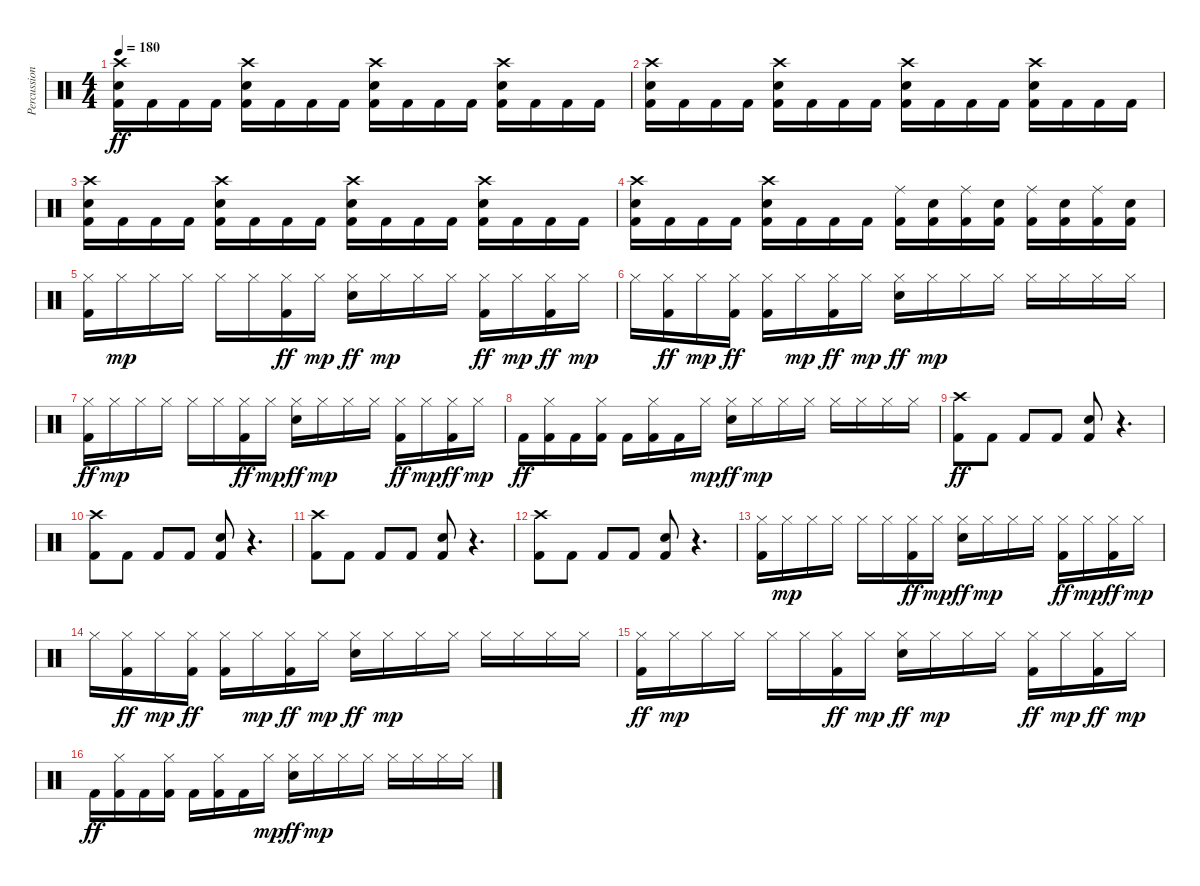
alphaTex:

\track ("Percussion" "Percussion") {instrument percussion}
\staff {score}
\articulation defaults
\ts (4 4)
\tempo 180
\clef neutral
\ks c
("Crash high (hit)" "Electric Snare (hit)" "Kick (hit) 2").16{dy ff} "Kick (hit) 2".16 "Kick (hit) 2".16 "Kick (hit) 2".16 ("Crash high (hit)" "Electric Snare (hit)" "Kick (hit) 2").16 "Kick (hit) 2".16 "Kick (hit) 2".16 "Kick (hit) 2".16 ("Crash high (hit)" "Electric Snare (hit)" "Kick (hit) 2").16 "Kick (hit) 2".16 "Kick (hit) 2".16 "Kick (hit) 2".16 ("Crash high (hit)" "Electric Snare (hit)" "Kick (hit) 2").16 "Kick (hit) 2".16 "Kick (hit) 2".16 "Kick (hit) 2".16 |
("Crash high (hit)" "Electric Snare (hit)" "Kick (hit) 2").16 "Kick (hit) 2".16 "Kick (hit) 2".16 "Kick (hit) 2".16 ("Crash high (hit)" "Electric Snare (hit)" "Kick (hit) 2").16 "Kick (hit) 2".16 "Kick (hit) 2".16 "Kick (hit) 2".16 ("Crash high (hit)" "Electric Snare (hit)" "Kick (hit) 2").16 "Kick (hit) 2".16 "Kick (hit) 2".16 "Kick (hit) 2".16 ("Crash high (hit)" "Electric Snare (hit)" "Kick (hit) 2").16 "Kick (hit) 2".16 "Kick (hit) 2".16 "Kick (hit) 2".16 |
("Crash high (hit)" "Electric Snare (hit)" "Kick (hit) 2").16 "Kick (hit) 2".16 "Kick (hit) 2".16 "Kick (hit) 2".16 ("Crash high (hit)" "Electric Snare (hit)" "Kick (hit) 2").16 "Kick (hit) 2".16 "Kick (hit) 2".16 "Kick (hit) 2".16 ("Crash high (hit)" "Electric Snare (hit)" "Kick (hit) 2").16 "Kick (hit) 2".16 "Kick (hit) 2".16 "Kick (hit) 2".16 ("Crash high (hit)" "Electric Snare (hit)" "Kick (hit) 2").16 "Kick (hit) 2".16 "Kick (hit) 2".16 "Kick (hit) 2".16 |
("Crash high (hit)" "Electric Snare (hit)" "Kick (hit) 2").16 "Kick (hit) 2".16 "Kick (hit) 2".16 "Kick (hit) 2".16 ("Crash high (hit)" "Electric Snare (hit)" "Kick (hit) 2").16 "Kick (hit) 2".16 "Kick (hit) 2".16 "Kick (hit) 2".16 ("Ride (middle)" "Kick (hit) 2").16 ("Electric Snare (hit)" "Kick (hit) 2").16 ("Ride (middle)" "Kick (hit) 2").16 ("Electric Snare (hit)" "Kick (hit) 2").16 ("Ride (middle)" "Kick (hit) 2").16 ("Electric Snare (hit)" "Kick (hit) 2").16 ("Ride (middle)" "Kick (hit) 2").16 ("Electric Snare (hit)" "Kick (hit) 2").16 |
("Hi-Hat (closed)" "Kick (hit) 2").16 "Hi-Hat (closed)".16{dy mp} "Hi-Hat (closed)".16 "Hi-Hat (closed)".16 "Hi-Hat (closed)".16 "Hi-Hat (closed)".16 ("Hi-Hat (closed)" "Kick (hit) 2").16{dy ff} "Hi-Hat (closed)".16{dy mp} ("Hi-Hat (closed)" "Electric Snare (hit)").16{dy ff} "Hi-Hat (closed)".16{dy mp} "Hi-Hat (closed)".16 "Hi-Hat (closed)".16 ("Hi-Hat (closed)" "Kick (hit) 2").16{dy ff} "Hi-Hat (closed)".16{dy mp} ("Hi-Hat (closed)" "Kick (hit) 2").16{dy ff} "Hi-Hat (closed)".16{dy mp} |
"Hi-Hat (closed)".16 ("Hi-Hat (closed)" "Kick (hit) 2").16{dy ff} "Hi-Hat (closed)".16{dy mp} ("Hi-Hat (closed)" "Kick (hit) 2").16{dy ff} ("Hi-Hat (closed)" "Kick (hit) 2").16 "Hi-Hat (closed)".16{dy mp} ("Hi-Hat (closed)" "Kick (hit) 2").16{dy ff} "Hi-Hat (closed)".16{dy mp} ("Hi-Hat (closed)" "Electric Snare (hit)").16{dy ff} "Hi-Hat (closed)".16{dy mp} "Hi-Hat (closed)".16 "Hi-Hat (closed)".16 "Hi-Hat (closed)".16 "Hi-Hat (closed)".16 "Hi-Hat (closed)".16 "Hi-Hat (closed)".16 |
("Hi-Hat (closed)" "Kick (hit) 2").16{dy ff} "Hi-Hat (closed)".16{dy mp} "Hi-Hat (closed)".16 "Hi-Hat (closed)".16 "Hi-Hat (closed)".16 "Hi-Hat (closed)".16 ("Hi-Hat (closed)" "Kick (hit) 2").16{dy ff} "Hi-Hat (closed)".16{dy mp} ("Hi-Hat (closed)" "Electric Snare (hit)").16{dy ff} "Hi-Hat (closed)".16{dy mp} "Hi-Hat (closed)".16 "Hi-Hat (closed)".16 ("Hi-Hat (closed)" "Kick (hit) 2").16{dy ff} "Hi-Hat (closed)".16{dy mp} ("Hi-Hat (closed)" "Kick (hit) 2").16{dy ff} "Hi-Hat (closed)".16{dy mp} |
"Kick (hit) 2".16{dy ff} ("Hi-Hat (closed)" "Kick (hit) 2").16 "Kick (hit) 2".16 ("Hi-Hat (closed)" "Kick (hit) 2").16 "Kick (hit) 2".16 ("Hi-Hat (closed)" "Kick (hit) 2").16 "Kick (hit) 2".16 "Hi-Hat (closed)".16{dy mp} ("Hi-Hat (closed)" "Electric Snare (hit)").16{dy ff} "Hi-Hat (closed)".16{dy mp} "Hi-Hat (closed)".16 "Hi-Hat (closed)".16 "Hi-Hat (closed)".16 "Hi-Hat (closed)".16 "Hi-Hat (closed)".16 "Hi-Hat (closed)".16 |
("Crash high (hit)" "Kick (hit) 2").8{dy ff} "Kick (hit) 2".8 "Kick (hit) 2".8 "Kick (hit) 2".8 ("Electric Snare (hit)" "Kick (hit) 2").8 r.4{d} |
("Crash high (hit)" "Kick (hit) 2").8 "Kick (hit) 2".8 "Kick (hit) 2".8 "Kick (hit) 2".8 ("Electric Snare (hit)" "Kick (hit) 2").8 r.4{d} |
("Crash high (hit)" "Kick (hit) 2").8 "Kick (hit) 2".8 "Kick (hit) 2".8 "Kick (hit) 2".8 ("Electric Snare (hit)" "Kick (hit) 2").8 r.4{d} |
("Crash high (hit)" "Kick (hit) 2").8 "Kick (hit) 2".8 "Kick (hit) 2".8 "Kick (hit) 2".8 ("Electric Snare (hit)" "Kick (hit) 2").8 r.4{d} |
("Hi-Hat (closed)" "Kick (hit) 2").16 "Hi-Hat (closed)".16{dy mp} "Hi-Hat (closed)".16 "Hi-Hat (closed)".16 "Hi-Hat (closed)".16 "Hi-Hat (closed)".16 ("Hi-Hat (closed)" "Kick (hit) 2").16{dy ff} "Hi-Hat (closed)".16{dy mp} ("Hi-Hat (closed)" "Electric Snare (hit)").16{dy ff} "Hi-Hat (closed)".16{dy mp} "Hi-Hat (closed)".16 "Hi-Hat (closed)".16 ("Hi-Hat (closed)" "Kick (hit) 2").16{dy ff} "Hi-Hat (closed)".16{dy mp} ("Hi-Hat (closed)" "Kick (hit) 2").16{dy ff} "Hi-Hat (closed)".16{dy mp} |
"Hi-Hat (closed)".16 ("Hi-Hat (closed)" "Kick (hit) 2").16{dy ff} "Hi-Hat (closed)".16{dy mp} ("Hi-Hat (closed)" "Kick (hit) 2").16{dy ff} ("Hi-Hat (closed)" "Kick (hit) 2").16 "Hi-Hat (closed)".16{dy mp} ("Hi-Hat (closed)" "Kick (hit) 2").16{dy ff} "Hi-Hat (closed)".16{dy mp} ("Hi-Hat (closed)" "Electric Snare (hit)").16{dy ff} "Hi-Hat (closed)".16{dy mp} "Hi-Hat (closed)".16 "Hi-Hat (closed)".16 "Hi-Hat (closed)".16 "Hi-Hat (closed)".16 "Hi-Hat (closed)".16 "Hi-Hat (closed)".16 |
("Hi-Hat (closed)" "Kick (hit) 2").16{dy ff} "Hi-Hat (closed)".16{dy mp} "Hi-Hat (closed)".16 "Hi-Hat (closed)".16 "Hi-Hat (closed)".16 "Hi-Hat (closed)".16 ("Hi-Hat (closed)" "Kick (hit) 2").16{dy ff} "Hi-Hat (closed)".16{dy mp} ("Hi-Hat (closed)" "Electric Snare (hit)").16{dy ff} "Hi-Hat (closed)".16{dy mp} "Hi-Hat (closed)".16 "Hi-Hat (closed)".16 ("Hi-Hat (closed)" "Kick (hit) 2").16{dy ff} "Hi-Hat (closed)".16{dy mp} ("Hi-Hat (closed)" "Kick (hit) 2").16{dy ff} "Hi-Hat (closed)".16{dy mp} |
"Kick (hit) 2".16{dy ff} ("Hi-Hat (closed)" "Kick (hit) 2").16 "Kick (hit) 2".16 ("Hi-Hat (closed)" "Kick (hit) 2").16 "Kick (hit) 2".16 ("Hi-Hat (closed)" "Kick (hit) 2").16 "Kick (hit) 2".16 "Hi-Hat (closed)".16{dy mp} ("Hi-Hat (closed)" "Electric Snare (hit)").16{dy ff} "Hi-Hat (closed)".16{dy mp} "Hi-Hat (closed)".16 "Hi-Hat (closed)".16 "Hi-Hat (closed)".16 "Hi-Hat (closed)".16 "Hi-Hat (closed)".16 "Hi-Hat (closed)".16
